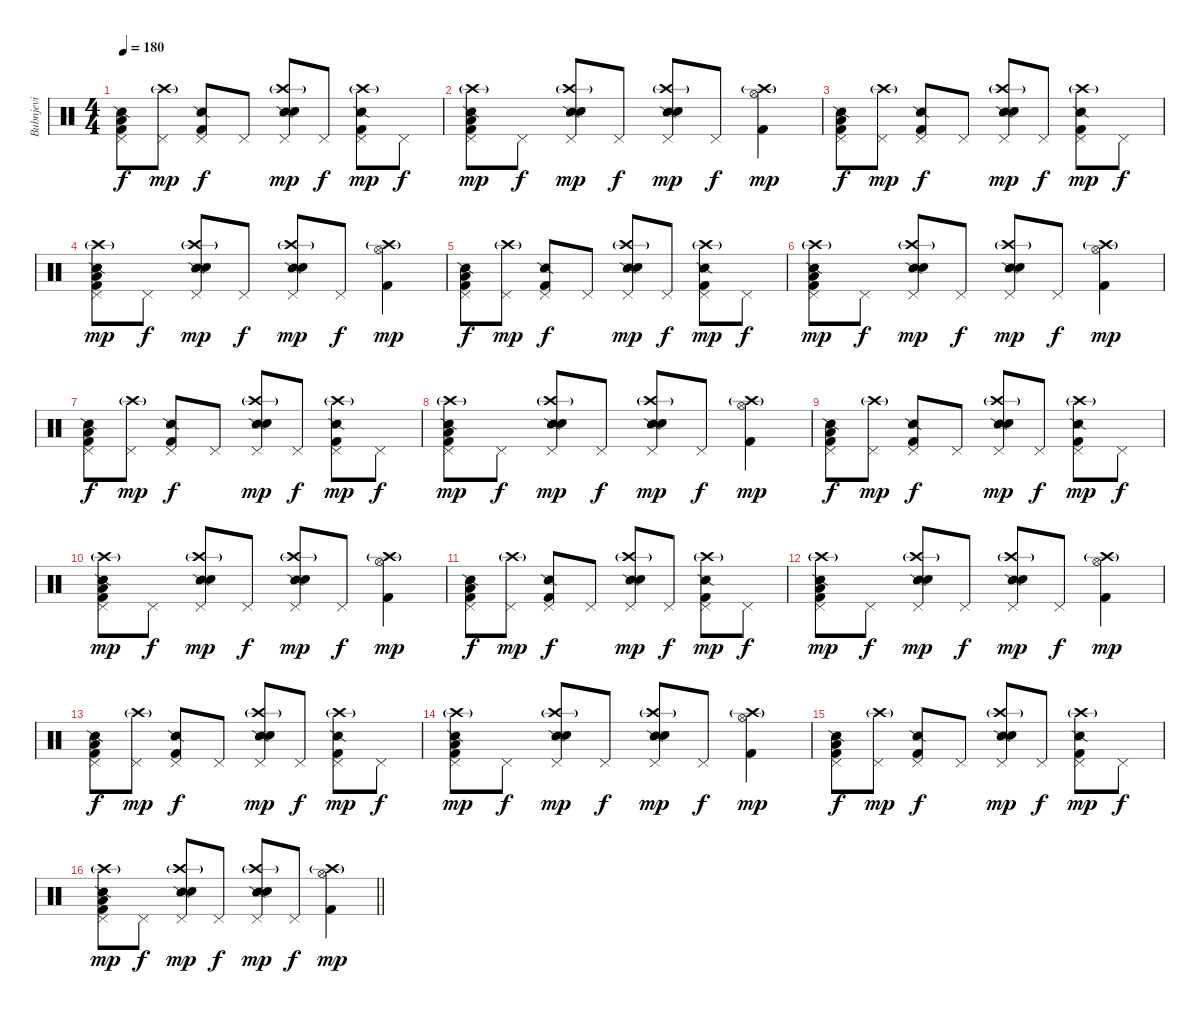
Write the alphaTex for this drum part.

\track ("Bubnjevi" "Bubnjevi") {instrument percussion}
\staff {score}
\articulation defaults
\ts (4 4)
\tempo 180
\clef neutral
\ks c
("Snare (side stick) 2" "Pedal Hi-Hat (hit)" "Low Tom (hit)" "Kick (hit) 2").8{dy f} ("Crash high (hit)"{g} "Pedal Hi-Hat (hit)").8{dy mp} ("Snare (side stick) 2" "Pedal Hi-Hat (hit)" "Kick (hit) 2").8{dy f} "Pedal Hi-Hat (hit)".8 ("Crash high (hit)"{g} "Snare (side stick) 2" "Pedal Hi-Hat (hit)" "Electric Snare (hit)").8{dy mp} "Pedal Hi-Hat (hit)".8{dy f} ("Crash high (hit)"{g} "Snare (side stick) 2" "Pedal Hi-Hat (hit)" "Kick (hit) 2").8{dy mp} "Pedal Hi-Hat (hit)".8{dy f} |
("Crash high (hit)"{g} "Snare (side stick) 2" "Pedal Hi-Hat (hit)" "Low Tom (hit)" "Kick (hit) 2").8{dy mp} "Pedal Hi-Hat (hit)".8{dy f} ("Crash high (hit)"{g} "Snare (side stick) 2" "Pedal Hi-Hat (hit)" "Hand Clap (hit)").8{dy mp} "Pedal Hi-Hat (hit)".8{dy f} ("Crash high (hit)"{g} "Snare (side stick) 2" "Pedal Hi-Hat (hit)" "Electric Snare (hit)").8{dy mp} "Pedal Hi-Hat (hit)".8{dy f} ("Crash high (hit)"{g} "Hi-Hat (open)" "Kick (hit) 2").4{dy mp} |
("Snare (side stick) 2" "Pedal Hi-Hat (hit)" "Low Tom (hit)" "Kick (hit) 2").8{dy f} ("Crash high (hit)"{g} "Pedal Hi-Hat (hit)").8{dy mp} ("Snare (side stick) 2" "Pedal Hi-Hat (hit)" "Kick (hit) 2").8{dy f} "Pedal Hi-Hat (hit)".8 ("Crash high (hit)"{g} "Snare (side stick) 2" "Pedal Hi-Hat (hit)" "Electric Snare (hit)").8{dy mp} "Pedal Hi-Hat (hit)".8{dy f} ("Crash high (hit)"{g} "Snare (side stick) 2" "Pedal Hi-Hat (hit)" "Kick (hit) 2").8{dy mp} "Pedal Hi-Hat (hit)".8{dy f} |
("Crash high (hit)"{g} "Snare (side stick) 2" "Pedal Hi-Hat (hit)" "Low Tom (hit)" "Kick (hit) 2").8{dy mp} "Pedal Hi-Hat (hit)".8{dy f} ("Crash high (hit)"{g} "Snare (side stick) 2" "Pedal Hi-Hat (hit)" "Hand Clap (hit)").8{dy mp} "Pedal Hi-Hat (hit)".8{dy f} ("Crash high (hit)"{g} "Snare (side stick) 2" "Pedal Hi-Hat (hit)" "Electric Snare (hit)").8{dy mp} "Pedal Hi-Hat (hit)".8{dy f} ("Crash high (hit)"{g} "Hi-Hat (open)" "Kick (hit) 2").4{dy mp} |
("Snare (side stick) 2" "Pedal Hi-Hat (hit)" "Low Tom (hit)" "Kick (hit) 2").8{dy f} ("Crash high (hit)"{g} "Pedal Hi-Hat (hit)").8{dy mp} ("Snare (side stick) 2" "Pedal Hi-Hat (hit)" "Kick (hit) 2").8{dy f} "Pedal Hi-Hat (hit)".8 ("Crash high (hit)"{g} "Snare (side stick) 2" "Pedal Hi-Hat (hit)" "Electric Snare (hit)").8{dy mp} "Pedal Hi-Hat (hit)".8{dy f} ("Crash high (hit)"{g} "Snare (side stick) 2" "Pedal Hi-Hat (hit)" "Kick (hit) 2").8{dy mp} "Pedal Hi-Hat (hit)".8{dy f} |
("Crash high (hit)"{g} "Snare (side stick) 2" "Pedal Hi-Hat (hit)" "Low Tom (hit)" "Kick (hit) 2").8{dy mp} "Pedal Hi-Hat (hit)".8{dy f} ("Crash high (hit)"{g} "Snare (side stick) 2" "Pedal Hi-Hat (hit)" "Hand Clap (hit)").8{dy mp} "Pedal Hi-Hat (hit)".8{dy f} ("Crash high (hit)"{g} "Snare (side stick) 2" "Pedal Hi-Hat (hit)" "Electric Snare (hit)").8{dy mp} "Pedal Hi-Hat (hit)".8{dy f} ("Crash high (hit)"{g} "Hi-Hat (open)" "Kick (hit) 2").4{dy mp} |
("Snare (side stick) 2" "Pedal Hi-Hat (hit)" "Low Tom (hit)" "Kick (hit) 2").8{dy f} ("Crash high (hit)"{g} "Pedal Hi-Hat (hit)").8{dy mp} ("Snare (side stick) 2" "Pedal Hi-Hat (hit)" "Kick (hit) 2").8{dy f} "Pedal Hi-Hat (hit)".8 ("Crash high (hit)"{g} "Snare (side stick) 2" "Pedal Hi-Hat (hit)" "Electric Snare (hit)").8{dy mp} "Pedal Hi-Hat (hit)".8{dy f} ("Crash high (hit)"{g} "Snare (side stick) 2" "Pedal Hi-Hat (hit)" "Kick (hit) 2").8{dy mp} "Pedal Hi-Hat (hit)".8{dy f} |
("Crash high (hit)"{g} "Snare (side stick) 2" "Pedal Hi-Hat (hit)" "Low Tom (hit)" "Kick (hit) 2").8{dy mp} "Pedal Hi-Hat (hit)".8{dy f} ("Crash high (hit)"{g} "Snare (side stick) 2" "Pedal Hi-Hat (hit)" "Hand Clap (hit)").8{dy mp} "Pedal Hi-Hat (hit)".8{dy f} ("Crash high (hit)"{g} "Snare (side stick) 2" "Pedal Hi-Hat (hit)" "Electric Snare (hit)").8{dy mp} "Pedal Hi-Hat (hit)".8{dy f} ("Crash high (hit)"{g} "Hi-Hat (open)" "Kick (hit) 2").4{dy mp} |
("Snare (side stick) 2" "Pedal Hi-Hat (hit)" "Low Tom (hit)" "Kick (hit) 2").8{dy f} ("Crash high (hit)"{g} "Pedal Hi-Hat (hit)").8{dy mp} ("Snare (side stick) 2" "Pedal Hi-Hat (hit)" "Kick (hit) 2").8{dy f} "Pedal Hi-Hat (hit)".8 ("Crash high (hit)"{g} "Snare (side stick) 2" "Pedal Hi-Hat (hit)" "Electric Snare (hit)").8{dy mp} "Pedal Hi-Hat (hit)".8{dy f} ("Crash high (hit)"{g} "Snare (side stick) 2" "Pedal Hi-Hat (hit)" "Kick (hit) 2").8{dy mp} "Pedal Hi-Hat (hit)".8{dy f} |
("Crash high (hit)"{g} "Snare (side stick) 2" "Pedal Hi-Hat (hit)" "Low Tom (hit)" "Kick (hit) 2").8{dy mp} "Pedal Hi-Hat (hit)".8{dy f} ("Crash high (hit)"{g} "Snare (side stick) 2" "Pedal Hi-Hat (hit)" "Hand Clap (hit)").8{dy mp} "Pedal Hi-Hat (hit)".8{dy f} ("Crash high (hit)"{g} "Snare (side stick) 2" "Pedal Hi-Hat (hit)" "Electric Snare (hit)").8{dy mp} "Pedal Hi-Hat (hit)".8{dy f} ("Crash high (hit)"{g} "Hi-Hat (open)" "Kick (hit) 2").4{dy mp} |
("Snare (side stick) 2" "Pedal Hi-Hat (hit)" "Low Tom (hit)" "Kick (hit) 2").8{dy f} ("Crash high (hit)"{g} "Pedal Hi-Hat (hit)").8{dy mp} ("Snare (side stick) 2" "Pedal Hi-Hat (hit)" "Kick (hit) 2").8{dy f} "Pedal Hi-Hat (hit)".8 ("Crash high (hit)"{g} "Snare (side stick) 2" "Pedal Hi-Hat (hit)" "Electric Snare (hit)").8{dy mp} "Pedal Hi-Hat (hit)".8{dy f} ("Crash high (hit)"{g} "Snare (side stick) 2" "Pedal Hi-Hat (hit)" "Kick (hit) 2").8{dy mp} "Pedal Hi-Hat (hit)".8{dy f} |
("Crash high (hit)"{g} "Snare (side stick) 2" "Pedal Hi-Hat (hit)" "Low Tom (hit)" "Kick (hit) 2").8{dy mp} "Pedal Hi-Hat (hit)".8{dy f} ("Crash high (hit)"{g} "Snare (side stick) 2" "Pedal Hi-Hat (hit)" "Hand Clap (hit)").8{dy mp} "Pedal Hi-Hat (hit)".8{dy f} ("Crash high (hit)"{g} "Snare (side stick) 2" "Pedal Hi-Hat (hit)" "Electric Snare (hit)").8{dy mp} "Pedal Hi-Hat (hit)".8{dy f} ("Crash high (hit)"{g} "Hi-Hat (open)" "Kick (hit) 2").4{dy mp} |
("Snare (side stick) 2" "Pedal Hi-Hat (hit)" "Low Tom (hit)" "Kick (hit) 2").8{dy f} ("Crash high (hit)"{g} "Pedal Hi-Hat (hit)").8{dy mp} ("Snare (side stick) 2" "Pedal Hi-Hat (hit)" "Kick (hit) 2").8{dy f} "Pedal Hi-Hat (hit)".8 ("Crash high (hit)"{g} "Snare (side stick) 2" "Pedal Hi-Hat (hit)" "Electric Snare (hit)").8{dy mp} "Pedal Hi-Hat (hit)".8{dy f} ("Crash high (hit)"{g} "Snare (side stick) 2" "Pedal Hi-Hat (hit)" "Kick (hit) 2").8{dy mp} "Pedal Hi-Hat (hit)".8{dy f} |
("Crash high (hit)"{g} "Snare (side stick) 2" "Pedal Hi-Hat (hit)" "Low Tom (hit)" "Kick (hit) 2").8{dy mp} "Pedal Hi-Hat (hit)".8{dy f} ("Crash high (hit)"{g} "Snare (side stick) 2" "Pedal Hi-Hat (hit)" "Hand Clap (hit)").8{dy mp} "Pedal Hi-Hat (hit)".8{dy f} ("Crash high (hit)"{g} "Snare (side stick) 2" "Pedal Hi-Hat (hit)" "Electric Snare (hit)").8{dy mp} "Pedal Hi-Hat (hit)".8{dy f} ("Crash high (hit)"{g} "Hi-Hat (open)" "Kick (hit) 2").4{dy mp} |
("Snare (side stick) 2" "Pedal Hi-Hat (hit)" "Low Tom (hit)" "Kick (hit) 2").8{dy f} ("Crash high (hit)"{g} "Pedal Hi-Hat (hit)").8{dy mp} ("Snare (side stick) 2" "Pedal Hi-Hat (hit)" "Kick (hit) 2").8{dy f} "Pedal Hi-Hat (hit)".8 ("Crash high (hit)"{g} "Snare (side stick) 2" "Pedal Hi-Hat (hit)" "Electric Snare (hit)").8{dy mp} "Pedal Hi-Hat (hit)".8{dy f} ("Crash high (hit)"{g} "Snare (side stick) 2" "Pedal Hi-Hat (hit)" "Kick (hit) 2").8{dy mp} "Pedal Hi-Hat (hit)".8{dy f} |
\barLineRight lightlight
("Crash high (hit)"{g} "Snare (side stick) 2" "Pedal Hi-Hat (hit)" "Low Tom (hit)" "Kick (hit) 2").8{dy mp} "Pedal Hi-Hat (hit)".8{dy f} ("Crash high (hit)"{g} "Snare (side stick) 2" "Pedal Hi-Hat (hit)" "Hand Clap (hit)").8{dy mp} "Pedal Hi-Hat (hit)".8{dy f} ("Crash high (hit)"{g} "Snare (side stick) 2" "Pedal Hi-Hat (hit)" "Electric Snare (hit)").8{dy mp} "Pedal Hi-Hat (hit)".8{dy f} ("Crash high (hit)"{g} "Hi-Hat (open)" "Kick (hit) 2").4{dy mp}
